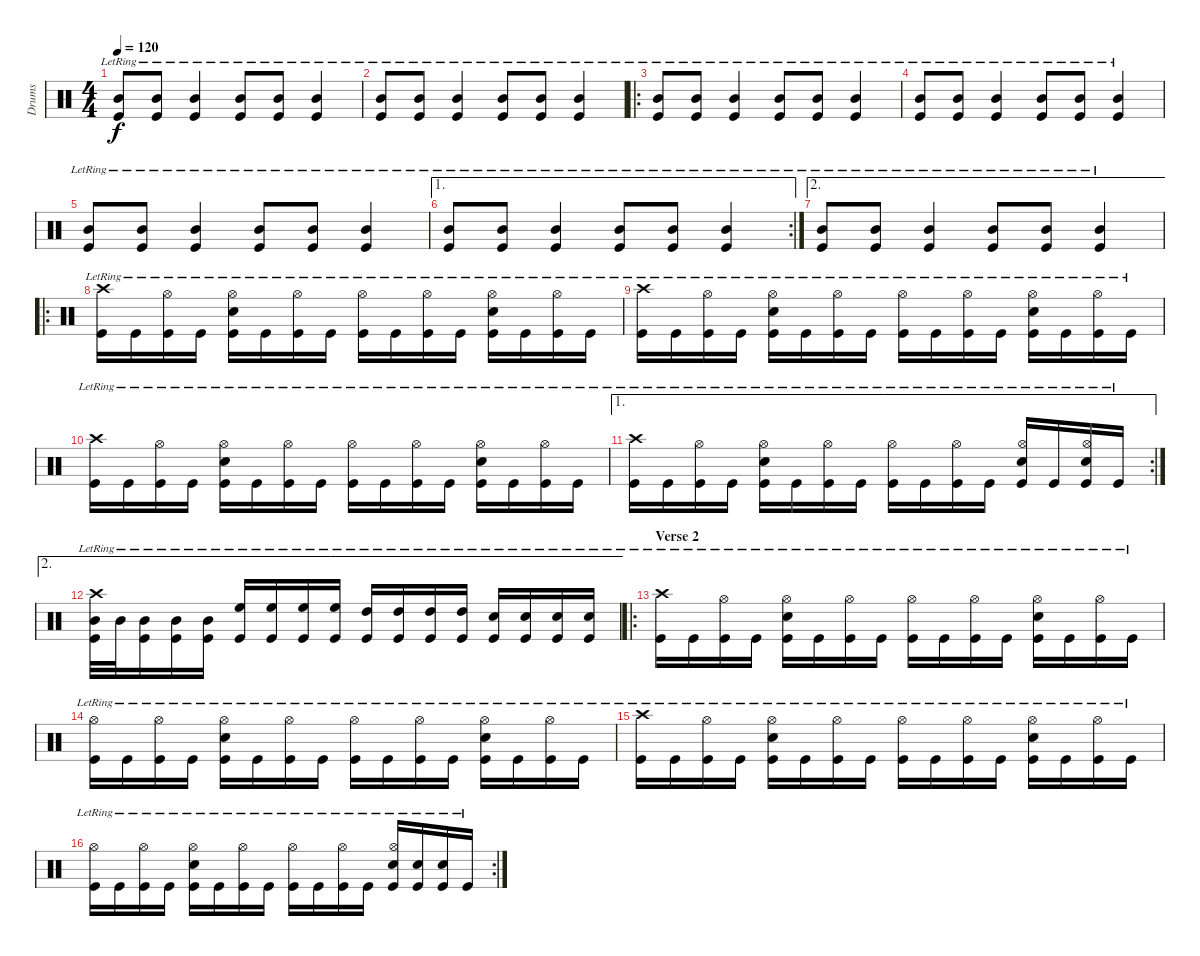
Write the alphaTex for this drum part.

\track ("Drums" "Drums") {instrument percussion}
\staff {score}
\articulation defaults
\ts (4 4)
\tempo 120
\clef neutral
\ks c
("Mid Tom (hit)"{lr} "Kick (hit)"{lr}).8{dy f} ("Mid Tom (hit)"{lr} "Kick (hit)"{lr}).8 ("Mid Tom (hit)"{lr} "Kick (hit)"{lr}).4 ("Mid Tom (hit)"{lr} "Kick (hit)"{lr}).8 ("Mid Tom (hit)"{lr} "Kick (hit)"{lr}).8 ("Mid Tom (hit)"{lr} "Kick (hit)"{lr}).4 |
("Mid Tom (hit)"{lr} "Kick (hit)"{lr}).8 ("Mid Tom (hit)"{lr} "Kick (hit)"{lr}).8 ("Mid Tom (hit)"{lr} "Kick (hit)"{lr}).4 ("Mid Tom (hit)"{lr} "Kick (hit)"{lr}).8 ("Mid Tom (hit)"{lr} "Kick (hit)"{lr}).8 ("Mid Tom (hit)"{lr} "Kick (hit)"{lr}).4 |
\ro
("Mid Tom (hit)"{lr} "Kick (hit)"{lr}).8 ("Mid Tom (hit)"{lr} "Kick (hit)"{lr}).8 ("Mid Tom (hit)"{lr} "Kick (hit)"{lr}).4 ("Mid Tom (hit)"{lr} "Kick (hit)"{lr}).8 ("Mid Tom (hit)"{lr} "Kick (hit)"{lr}).8 ("Mid Tom (hit)"{lr} "Kick (hit)"{lr}).4 |
("Mid Tom (hit)"{lr} "Kick (hit)"{lr}).8 ("Mid Tom (hit)"{lr} "Kick (hit)"{lr}).8 ("Mid Tom (hit)"{lr} "Kick (hit)"{lr}).4 ("Mid Tom (hit)"{lr} "Kick (hit)"{lr}).8 ("Mid Tom (hit)"{lr} "Kick (hit)"{lr}).8 ("Mid Tom (hit)"{lr} "Kick (hit)"{lr}).4 |
("Mid Tom (hit)"{lr} "Kick (hit)"{lr}).8 ("Mid Tom (hit)"{lr} "Kick (hit)"{lr}).8 ("Mid Tom (hit)"{lr} "Kick (hit)"{lr}).4 ("Mid Tom (hit)"{lr} "Kick (hit)"{lr}).8 ("Mid Tom (hit)"{lr} "Kick (hit)"{lr}).8 ("Mid Tom (hit)"{lr} "Kick (hit)"{lr}).4 |
\ae 1
\rc 2
("Mid Tom (hit)"{lr} "Kick (hit)"{lr}).8 ("Mid Tom (hit)"{lr} "Kick (hit)"{lr}).8 ("Mid Tom (hit)"{lr} "Kick (hit)"{lr}).4 ("Mid Tom (hit)"{lr} "Kick (hit)"{lr}).8 ("Mid Tom (hit)"{lr} "Kick (hit)"{lr}).8 ("Mid Tom (hit)"{lr} "Kick (hit)"{lr}).4 |
\ae 2
("Mid Tom (hit)"{lr} "Kick (hit)"{lr}).8 ("Mid Tom (hit)"{lr} "Kick (hit)"{lr}).8 ("Mid Tom (hit)"{lr} "Kick (hit)"{lr}).4 ("Mid Tom (hit)"{lr} "Kick (hit)"{lr}).8 ("Mid Tom (hit)"{lr} "Kick (hit)"{lr}).8 ("Mid Tom (hit)"{lr} "Kick (hit)"{lr}).4 |
\ro
("Crash high (hit)"{lr} "Kick (hit)"{lr}).16 "Kick (hit)"{lr}.16 ("Hi-Hat (open)"{lr} "Kick (hit)"{lr}).16 "Kick (hit)"{lr}.16 ("Hi-Hat (open)"{lr} "Snare (hit) 2"{lr} "Kick (hit)"{lr}).16 "Kick (hit)"{lr}.16 ("Hi-Hat (open)"{lr} "Kick (hit)"{lr}).16 "Kick (hit)"{lr}.16 ("Hi-Hat (open)"{lr} "Kick (hit)"{lr}).16 "Kick (hit)"{lr}.16 ("Hi-Hat (open)"{lr} "Kick (hit)"{lr}).16 "Kick (hit)"{lr}.16 ("Hi-Hat (open)"{lr} "Snare (hit) 2"{lr} "Kick (hit)"{lr}).16 "Kick (hit)"{lr}.16 ("Hi-Hat (open)"{lr} "Kick (hit)"{lr}).16 "Kick (hit)"{lr}.16 |
("Crash high (hit)"{lr} "Kick (hit)"{lr}).16 "Kick (hit)"{lr}.16 ("Hi-Hat (open)"{lr} "Kick (hit)"{lr}).16 "Kick (hit)"{lr}.16 ("Hi-Hat (open)"{lr} "Snare (hit) 2"{lr} "Kick (hit)"{lr}).16 "Kick (hit)"{lr}.16 ("Hi-Hat (open)"{lr} "Kick (hit)"{lr}).16 "Kick (hit)"{lr}.16 ("Hi-Hat (open)"{lr} "Kick (hit)"{lr}).16 "Kick (hit)"{lr}.16 ("Hi-Hat (open)"{lr} "Kick (hit)"{lr}).16 "Kick (hit)"{lr}.16 ("Hi-Hat (open)"{lr} "Snare (hit) 2"{lr} "Kick (hit)"{lr}).16 "Kick (hit)"{lr}.16 ("Hi-Hat (open)"{lr} "Kick (hit)"{lr}).16 "Kick (hit)"{lr}.16 |
("Crash high (hit)"{lr} "Kick (hit)"{lr}).16 "Kick (hit)"{lr}.16 ("Hi-Hat (open)"{lr} "Kick (hit)"{lr}).16 "Kick (hit)"{lr}.16 ("Hi-Hat (open)"{lr} "Snare (hit) 2"{lr} "Kick (hit)"{lr}).16 "Kick (hit)"{lr}.16 ("Hi-Hat (open)"{lr} "Kick (hit)"{lr}).16 "Kick (hit)"{lr}.16 ("Hi-Hat (open)"{lr} "Kick (hit)"{lr}).16 "Kick (hit)"{lr}.16 ("Hi-Hat (open)"{lr} "Kick (hit)"{lr}).16 "Kick (hit)"{lr}.16 ("Hi-Hat (open)"{lr} "Snare (hit) 2"{lr} "Kick (hit)"{lr}).16 "Kick (hit)"{lr}.16 ("Hi-Hat (open)"{lr} "Kick (hit)"{lr}).16 "Kick (hit)"{lr}.16 |
\ae 1
\rc 2
("Crash high (hit)"{lr} "Kick (hit)"{lr}).16 "Kick (hit)"{lr}.16 ("Hi-Hat (open)"{lr} "Kick (hit)"{lr}).16 "Kick (hit)"{lr}.16 ("Hi-Hat (open)"{lr} "Snare (hit) 2"{lr} "Kick (hit)"{lr}).16 "Kick (hit)"{lr}.16 ("Hi-Hat (open)"{lr} "Kick (hit)"{lr}).16 "Kick (hit)"{lr}.16 ("Hi-Hat (open)"{lr} "Kick (hit)"{lr}).16 "Kick (hit)"{lr}.16 ("Hi-Hat (open)"{lr} "Kick (hit)"{lr}).16 "Kick (hit)"{lr}.16 ("Hi-Hat (open)"{lr} "Snare (hit) 2"{lr} "Kick (hit)"{lr}).16 "Kick (hit)"{lr}.16 ("Hi-Hat (open)"{lr} "Snare (hit) 2"{lr} "Kick (hit)"{lr}).16 "Kick (hit)"{lr}.16 |
\ae 2
("Crash high (hit)"{lr} "Mid Tom (hit)"{lr} "Kick (hit)"{lr}).32 "Mid Tom (hit)"{lr}.32 ("Mid Tom (hit)"{lr} "Kick (hit)"{lr}).16 ("Mid Tom (hit)"{lr} "Kick (hit)"{lr}).16 ("Mid Tom (hit)"{lr} "Kick (hit)"{lr}).16 ("High Floor Tom (hit)"{lr} "Kick (hit)"{lr}).16 ("High Floor Tom (hit)"{lr} "Kick (hit)"{lr}).16 ("High Floor Tom (hit)"{lr} "Kick (hit)"{lr}).16 ("High Floor Tom (hit)"{lr} "Kick (hit)"{lr}).16 ("High Tom (hit)"{lr} "Kick (hit)"{lr}).16 ("High Tom (hit)"{lr} "Kick (hit)"{lr}).16 ("High Tom (hit)"{lr} "Kick (hit)"{lr}).16 ("High Tom (hit)"{lr} "Kick (hit)"{lr}).16 ("Snare (hit) 2"{lr} "Kick (hit)"{lr}).16 ("Snare (hit) 2"{lr} "Kick (hit)"{lr}).16 ("Snare (hit) 2"{lr} "Kick (hit)"{lr}).16 ("Snare (hit) 2"{lr} "Kick (hit)"{lr}).16 |
\ro
\section ("" "Verse 2")
("Crash high (hit)"{lr} "Kick (hit)"{lr}).16 "Kick (hit)"{lr}.16 ("Hi-Hat (open)"{lr} "Kick (hit)"{lr}).16 "Kick (hit)"{lr}.16 ("Hi-Hat (open)"{lr} "Snare (hit) 2"{lr} "Kick (hit)"{lr}).16 "Kick (hit)"{lr}.16 ("Hi-Hat (open)"{lr} "Kick (hit)"{lr}).16 "Kick (hit)"{lr}.16 ("Hi-Hat (open)"{lr} "Kick (hit)"{lr}).16 "Kick (hit)"{lr}.16 ("Hi-Hat (open)"{lr} "Kick (hit)"{lr}).16 "Kick (hit)"{lr}.16 ("Hi-Hat (open)"{lr} "Snare (hit) 2"{lr} "Kick (hit)"{lr}).16 "Kick (hit)"{lr}.16 ("Hi-Hat (open)"{lr} "Kick (hit)"{lr}).16 "Kick (hit)"{lr}.16 |
("Hi-Hat (open)"{lr} "Kick (hit)"{lr}).16 "Kick (hit)"{lr}.16 ("Hi-Hat (open)"{lr} "Kick (hit)"{lr}).16 "Kick (hit)"{lr}.16 ("Hi-Hat (open)"{lr} "Snare (hit) 2"{lr} "Kick (hit)"{lr}).16 "Kick (hit)"{lr}.16 ("Hi-Hat (open)"{lr} "Kick (hit)"{lr}).16 "Kick (hit)"{lr}.16 ("Hi-Hat (open)"{lr} "Kick (hit)"{lr}).16 "Kick (hit)"{lr}.16 ("Hi-Hat (open)"{lr} "Kick (hit)"{lr}).16 "Kick (hit)"{lr}.16 ("Hi-Hat (open)"{lr} "Snare (hit) 2"{lr} "Kick (hit)"{lr}).16 "Kick (hit)"{lr}.16 ("Hi-Hat (open)"{lr} "Kick (hit)"{lr}).16 "Kick (hit)"{lr}.16 |
("Crash high (hit)"{lr} "Kick (hit)"{lr}).16 "Kick (hit)"{lr}.16 ("Hi-Hat (open)"{lr} "Kick (hit)"{lr}).16 "Kick (hit)"{lr}.16 ("Hi-Hat (open)"{lr} "Snare (hit) 2"{lr} "Kick (hit)"{lr}).16 "Kick (hit)"{lr}.16 ("Hi-Hat (open)"{lr} "Kick (hit)"{lr}).16 "Kick (hit)"{lr}.16 ("Hi-Hat (open)"{lr} "Kick (hit)"{lr}).16 "Kick (hit)"{lr}.16 ("Hi-Hat (open)"{lr} "Kick (hit)"{lr}).16 "Kick (hit)"{lr}.16 ("Hi-Hat (open)"{lr} "Snare (hit) 2"{lr} "Kick (hit)"{lr}).16 "Kick (hit)"{lr}.16 ("Hi-Hat (open)"{lr} "Kick (hit)"{lr}).16 "Kick (hit)"{lr}.16 |
\rc 2
("Hi-Hat (open)"{lr} "Kick (hit)"{lr}).16 "Kick (hit)"{lr}.16 ("Hi-Hat (open)"{lr} "Kick (hit)"{lr}).16 "Kick (hit)"{lr}.16 ("Hi-Hat (open)"{lr} "Snare (hit) 2"{lr} "Kick (hit)"{lr}).16 "Kick (hit)"{lr}.16 ("Hi-Hat (open)"{lr} "Kick (hit)"{lr}).16 "Kick (hit)"{lr}.16 ("Hi-Hat (open)"{lr} "Kick (hit)"{lr}).16 "Kick (hit)"{lr}.16 ("Hi-Hat (open)"{lr} "Kick (hit)"{lr}).16 "Kick (hit)"{lr}.16 ("Hi-Hat (open)"{lr} "Snare (hit) 2"{lr} "Kick (hit)"{lr}).16 ("Snare (hit) 2"{lr} "Kick (hit)"{lr}).16 ("Snare (hit) 2"{lr} "Kick (hit)"{lr}).16 "Kick (hit)"{lr}.16
